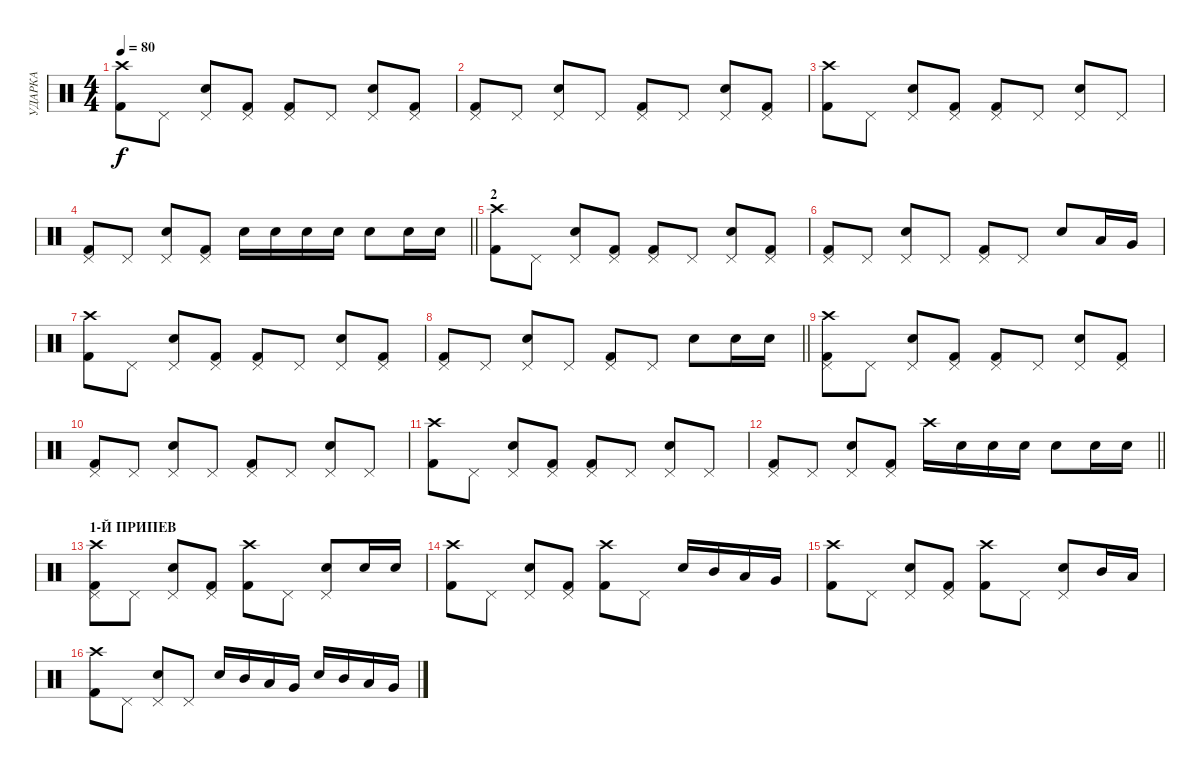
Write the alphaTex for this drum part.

\track ("УДАРКА" "УДАРКА") {instrument percussion}
\staff {score}
\articulation defaults
\ts (4 4)
\section ("" "")
\tempo 80
\clef neutral
\ks c
("Crash high (hit)" "Kick (hit) 2").8{dy f} "Pedal Hi-Hat (hit)".8 ("Pedal Hi-Hat (hit)" "Electric Snare (hit)").8 ("Pedal Hi-Hat (hit)" "Kick (hit) 2").8 ("Pedal Hi-Hat (hit)" "Kick (hit) 2").8 "Pedal Hi-Hat (hit)".8 ("Pedal Hi-Hat (hit)" "Electric Snare (hit)").8 ("Pedal Hi-Hat (hit)" "Kick (hit) 2").8 |
("Pedal Hi-Hat (hit)" "Kick (hit) 2").8 "Pedal Hi-Hat (hit)".8 ("Pedal Hi-Hat (hit)" "Electric Snare (hit)").8 "Pedal Hi-Hat (hit)".8 ("Pedal Hi-Hat (hit)" "Kick (hit) 2").8 "Pedal Hi-Hat (hit)".8 ("Pedal Hi-Hat (hit)" "Electric Snare (hit)").8 ("Pedal Hi-Hat (hit)" "Kick (hit) 2").8 |
("Crash high (hit)" "Kick (hit) 2").8 "Pedal Hi-Hat (hit)".8 ("Pedal Hi-Hat (hit)" "Electric Snare (hit)").8 ("Pedal Hi-Hat (hit)" "Kick (hit) 2").8 ("Pedal Hi-Hat (hit)" "Kick (hit) 2").8 "Pedal Hi-Hat (hit)".8 ("Pedal Hi-Hat (hit)" "Electric Snare (hit)").8 "Pedal Hi-Hat (hit)".8 |
\barLineRight lightlight
("Pedal Hi-Hat (hit)" "Kick (hit) 2").8 "Pedal Hi-Hat (hit)".8 ("Pedal Hi-Hat (hit)" "Electric Snare (hit)").8 ("Pedal Hi-Hat (hit)" "Kick (hit) 2").8 "Electric Snare (hit)".16 "Electric Snare (hit)".16 "Electric Snare (hit)".16 "Electric Snare (hit)".16 "Electric Snare (hit)".8 "Electric Snare (hit)".16 "Electric Snare (hit)".16 |
\section ("" "2")
("Crash high (hit)" "Kick (hit) 2").8 "Pedal Hi-Hat (hit)".8 ("Pedal Hi-Hat (hit)" "Electric Snare (hit)").8 ("Pedal Hi-Hat (hit)" "Kick (hit) 2").8 ("Pedal Hi-Hat (hit)" "Kick (hit) 2").8 "Pedal Hi-Hat (hit)".8 ("Pedal Hi-Hat (hit)" "Electric Snare (hit)").8 ("Pedal Hi-Hat (hit)" "Kick (hit) 2").8 |
("Pedal Hi-Hat (hit)" "Kick (hit) 2").8 "Pedal Hi-Hat (hit)".8 ("Pedal Hi-Hat (hit)" "Electric Snare (hit)").8 "Pedal Hi-Hat (hit)".8 ("Pedal Hi-Hat (hit)" "Kick (hit) 2").8 "Pedal Hi-Hat (hit)".8 "Electric Snare (hit)".8 "Low Tom (hit)".16 "Very Low Tom (hit)".16 |
("Crash high (hit)" "Kick (hit) 2").8 "Pedal Hi-Hat (hit)".8 ("Pedal Hi-Hat (hit)" "Electric Snare (hit)").8 ("Pedal Hi-Hat (hit)" "Kick (hit) 2").8 ("Pedal Hi-Hat (hit)" "Kick (hit) 2").8 "Pedal Hi-Hat (hit)".8 ("Pedal Hi-Hat (hit)" "Electric Snare (hit)").8 ("Pedal Hi-Hat (hit)" "Kick (hit) 2").8 |
\barLineRight lightlight
("Pedal Hi-Hat (hit)" "Kick (hit) 2").8 "Pedal Hi-Hat (hit)".8 ("Pedal Hi-Hat (hit)" "Electric Snare (hit)").8 "Pedal Hi-Hat (hit)".8 ("Pedal Hi-Hat (hit)" "Kick (hit) 2").8 "Pedal Hi-Hat (hit)".8 "Electric Snare (hit)".8 "Electric Snare (hit)".16 "Electric Snare (hit)".16 |
("Pedal Hi-Hat (hit)" "Kick (hit) 2" "Crash high (hit)").8 "Pedal Hi-Hat (hit)".8 ("Pedal Hi-Hat (hit)" "Electric Snare (hit)").8 ("Pedal Hi-Hat (hit)" "Kick (hit) 2").8 ("Pedal Hi-Hat (hit)" "Kick (hit) 2").8 "Pedal Hi-Hat (hit)".8 ("Pedal Hi-Hat (hit)" "Electric Snare (hit)").8 ("Pedal Hi-Hat (hit)" "Kick (hit) 2").8 |
("Pedal Hi-Hat (hit)" "Kick (hit) 2").8 "Pedal Hi-Hat (hit)".8 ("Pedal Hi-Hat (hit)" "Electric Snare (hit)").8 "Pedal Hi-Hat (hit)".8 ("Pedal Hi-Hat (hit)" "Kick (hit) 2").8 "Pedal Hi-Hat (hit)".8 ("Pedal Hi-Hat (hit)" "Electric Snare (hit)").8 "Pedal Hi-Hat (hit)".8 |
("Crash high (hit)" "Kick (hit) 2").8 "Pedal Hi-Hat (hit)".8 ("Pedal Hi-Hat (hit)" "Electric Snare (hit)").8 ("Pedal Hi-Hat (hit)" "Kick (hit) 2").8 ("Pedal Hi-Hat (hit)" "Kick (hit) 2").8 "Pedal Hi-Hat (hit)".8 ("Pedal Hi-Hat (hit)" "Electric Snare (hit)").8 "Pedal Hi-Hat (hit)".8 |
\barLineRight lightlight
("Pedal Hi-Hat (hit)" "Kick (hit) 2").8 "Pedal Hi-Hat (hit)".8 ("Pedal Hi-Hat (hit)" "Electric Snare (hit)").8 ("Pedal Hi-Hat (hit)" "Kick (hit) 2").8 "Crash high (hit)".16 "Electric Snare (hit)".16 "Electric Snare (hit)".16 "Electric Snare (hit)".16 "Electric Snare (hit)".8 "Electric Snare (hit)".16 "Electric Snare (hit)".16 |
\section ("" "1-Й ПРИПЕВ ")
("Pedal Hi-Hat (hit)" "Kick (hit) 2" "Crash high (hit)").8 "Pedal Hi-Hat (hit)".8 ("Pedal Hi-Hat (hit)" "Electric Snare (hit)").8 ("Pedal Hi-Hat (hit)" "Kick (hit) 2").8 ("Crash high (hit)" "Kick (hit) 2").8 "Pedal Hi-Hat (hit)".8 ("Pedal Hi-Hat (hit)" "Electric Snare (hit)").8 "Electric Snare (hit)".16 "Electric Snare (hit)".16 |
("Crash high (hit)" "Kick (hit) 2").8 "Pedal Hi-Hat (hit)".8 ("Pedal Hi-Hat (hit)" "Electric Snare (hit)").8 ("Pedal Hi-Hat (hit)" "Kick (hit) 2").8 ("Crash high (hit)" "Kick (hit) 2").8 "Pedal Hi-Hat (hit)".8 "Electric Snare (hit)".16 "Mid Tom (hit)".16 "Low Tom (hit)".16 "Very Low Tom (hit)".16 |
("Crash high (hit)" "Kick (hit) 2").8 "Pedal Hi-Hat (hit)".8 ("Pedal Hi-Hat (hit)" "Electric Snare (hit)").8 ("Pedal Hi-Hat (hit)" "Kick (hit) 2").8 ("Crash high (hit)" "Kick (hit) 2").8 "Pedal Hi-Hat (hit)".8 ("Pedal Hi-Hat (hit)" "Electric Snare (hit)").8 "Mid Tom (hit)".16 "Low Tom (hit)".16 |
("Kick (hit) 2" "Crash high (hit)").8 "Pedal Hi-Hat (hit)".8 ("Pedal Hi-Hat (hit)" "Electric Snare (hit)").8 "Pedal Hi-Hat (hit)".8 "Electric Snare (hit)".16 "Mid Tom (hit)".16 "Low Tom (hit)".16 "Very Low Tom (hit)".16 "Electric Snare (hit)".16 "Mid Tom (hit)".16 "Low Tom (hit)".16 "Very Low Tom (hit)".16
